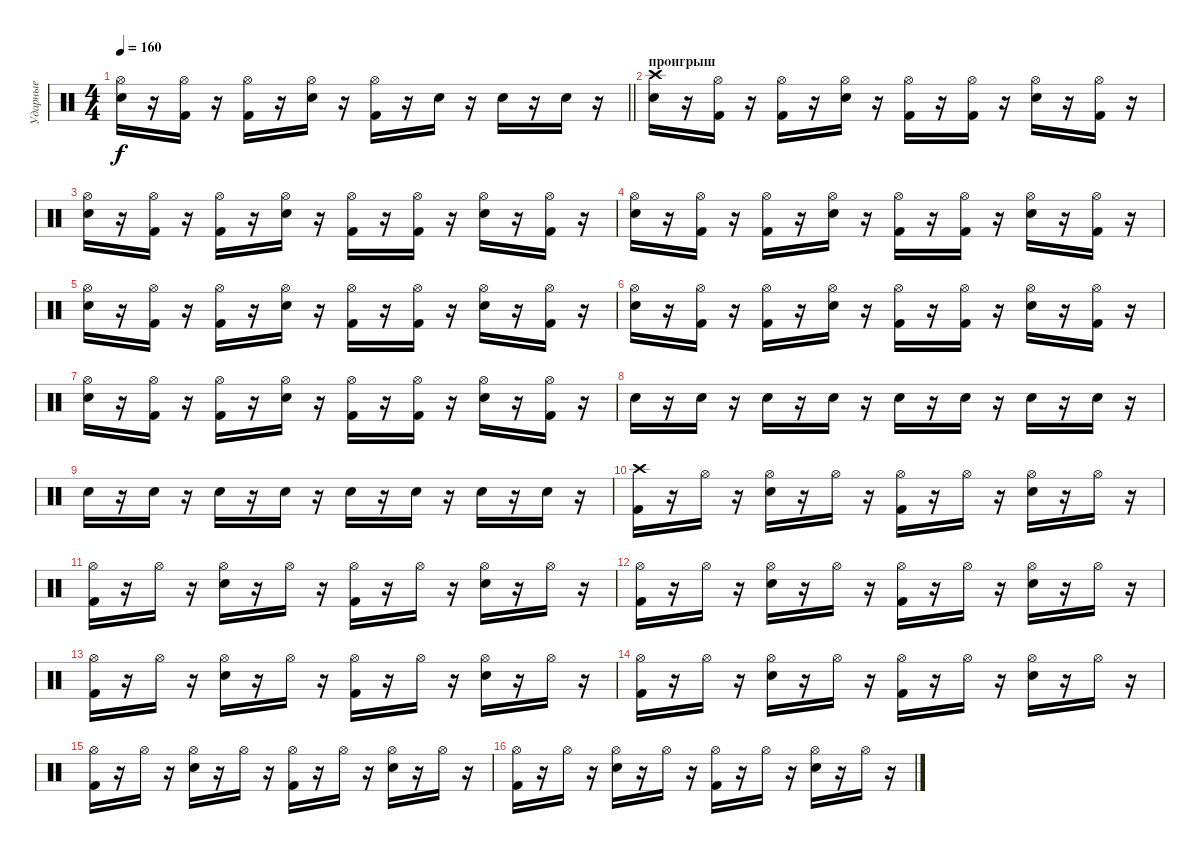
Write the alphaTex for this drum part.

\track ("Ударные" "Ударные") {instrument percussion}
\staff {score}
\articulation defaults
\ts (4 4)
\tempo 160
\clef neutral
\barLineRight lightlight
\ks c
("Hi-Hat (open)" "Electric Snare (hit)").16{dy f} r.16 ("Hi-Hat (open)" "Kick (hit) 2").16 r.16 ("Hi-Hat (open)" "Kick (hit) 2").16 r.16 ("Hi-Hat (open)" "Electric Snare (hit)").16 r.16 ("Hi-Hat (open)" "Kick (hit) 2").16 r.16 "Electric Snare (hit)".16 r.16 "Electric Snare (hit)".16 r.16 "Electric Snare (hit)".16 r.16 |
\section ("" "проигрыш")
("Crash high (hit)" "Electric Snare (hit)").16 r.16 ("Hi-Hat (open)" "Kick (hit) 2").16 r.16 ("Hi-Hat (open)" "Kick (hit) 2").16 r.16 ("Hi-Hat (open)" "Electric Snare (hit)").16 r.16 ("Hi-Hat (open)" "Kick (hit) 2").16 r.16 ("Hi-Hat (open)" "Kick (hit) 2").16 r.16 ("Hi-Hat (open)" "Electric Snare (hit)").16 r.16 ("Hi-Hat (open)" "Kick (hit) 2").16 r.16 |
("Hi-Hat (open)" "Electric Snare (hit)").16 r.16 ("Hi-Hat (open)" "Kick (hit) 2").16 r.16 ("Hi-Hat (open)" "Kick (hit) 2").16 r.16 ("Hi-Hat (open)" "Electric Snare (hit)").16 r.16 ("Hi-Hat (open)" "Kick (hit) 2").16 r.16 ("Hi-Hat (open)" "Kick (hit) 2").16 r.16 ("Hi-Hat (open)" "Electric Snare (hit)").16 r.16 ("Hi-Hat (open)" "Kick (hit) 2").16 r.16 |
("Hi-Hat (open)" "Electric Snare (hit)").16 r.16 ("Hi-Hat (open)" "Kick (hit) 2").16 r.16 ("Hi-Hat (open)" "Kick (hit) 2").16 r.16 ("Hi-Hat (open)" "Electric Snare (hit)").16 r.16 ("Hi-Hat (open)" "Kick (hit) 2").16 r.16 ("Hi-Hat (open)" "Kick (hit) 2").16 r.16 ("Hi-Hat (open)" "Electric Snare (hit)").16 r.16 ("Hi-Hat (open)" "Kick (hit) 2").16 r.16 |
("Hi-Hat (open)" "Electric Snare (hit)").16 r.16 ("Hi-Hat (open)" "Kick (hit) 2").16 r.16 ("Hi-Hat (open)" "Kick (hit) 2").16 r.16 ("Hi-Hat (open)" "Electric Snare (hit)").16 r.16 ("Hi-Hat (open)" "Kick (hit) 2").16 r.16 ("Hi-Hat (open)" "Kick (hit) 2").16 r.16 ("Hi-Hat (open)" "Electric Snare (hit)").16 r.16 ("Hi-Hat (open)" "Kick (hit) 2").16 r.16 |
("Hi-Hat (open)" "Electric Snare (hit)").16 r.16 ("Hi-Hat (open)" "Kick (hit) 2").16 r.16 ("Hi-Hat (open)" "Kick (hit) 2").16 r.16 ("Hi-Hat (open)" "Electric Snare (hit)").16 r.16 ("Hi-Hat (open)" "Kick (hit) 2").16 r.16 ("Hi-Hat (open)" "Kick (hit) 2").16 r.16 ("Hi-Hat (open)" "Electric Snare (hit)").16 r.16 ("Hi-Hat (open)" "Kick (hit) 2").16 r.16 |
("Hi-Hat (open)" "Electric Snare (hit)").16 r.16 ("Hi-Hat (open)" "Kick (hit) 2").16 r.16 ("Hi-Hat (open)" "Kick (hit) 2").16 r.16 ("Hi-Hat (open)" "Electric Snare (hit)").16 r.16 ("Hi-Hat (open)" "Kick (hit) 2").16 r.16 ("Hi-Hat (open)" "Kick (hit) 2").16 r.16 ("Hi-Hat (open)" "Electric Snare (hit)").16 r.16 ("Hi-Hat (open)" "Kick (hit) 2").16 r.16 |
"Electric Snare (hit)".16 r.16 "Electric Snare (hit)".16 r.16 "Electric Snare (hit)".16 r.16 "Electric Snare (hit)".16 r.16 "Electric Snare (hit)".16 r.16 "Electric Snare (hit)".16 r.16 "Electric Snare (hit)".16 r.16 "Electric Snare (hit)".16 r.16 |
"Electric Snare (hit)".16 r.16 "Electric Snare (hit)".16 r.16 "Electric Snare (hit)".16 r.16 "Electric Snare (hit)".16 r.16 "Electric Snare (hit)".16 r.16 "Electric Snare (hit)".16 r.16 "Electric Snare (hit)".16 r.16 "Electric Snare (hit)".16 r.16 |
("Crash high (hit)" "Kick (hit) 2").16 r.16 "Hi-Hat (open)".16 r.16 ("Hi-Hat (open)" "Electric Snare (hit)").16 r.16 "Hi-Hat (open)".16 r.16 ("Hi-Hat (open)" "Kick (hit) 2").16 r.16 "Hi-Hat (open)".16 r.16 ("Hi-Hat (open)" "Electric Snare (hit)").16 r.16 "Hi-Hat (open)".16 r.16 |
("Hi-Hat (open)" "Kick (hit) 2").16 r.16 "Hi-Hat (open)".16 r.16 ("Hi-Hat (open)" "Electric Snare (hit)").16 r.16 "Hi-Hat (open)".16 r.16 ("Hi-Hat (open)" "Kick (hit) 2").16 r.16 "Hi-Hat (open)".16 r.16 ("Hi-Hat (open)" "Electric Snare (hit)").16 r.16 "Hi-Hat (open)".16 r.16 |
("Hi-Hat (open)" "Kick (hit) 2").16 r.16 "Hi-Hat (open)".16 r.16 ("Hi-Hat (open)" "Electric Snare (hit)").16 r.16 "Hi-Hat (open)".16 r.16 ("Hi-Hat (open)" "Kick (hit) 2").16 r.16 "Hi-Hat (open)".16 r.16 ("Hi-Hat (open)" "Electric Snare (hit)").16 r.16 "Hi-Hat (open)".16 r.16 |
("Hi-Hat (open)" "Kick (hit) 2").16 r.16 "Hi-Hat (open)".16 r.16 ("Hi-Hat (open)" "Electric Snare (hit)").16 r.16 "Hi-Hat (open)".16 r.16 ("Hi-Hat (open)" "Kick (hit) 2").16 r.16 "Hi-Hat (open)".16 r.16 ("Hi-Hat (open)" "Electric Snare (hit)").16 r.16 "Hi-Hat (open)".16 r.16 |
("Hi-Hat (open)" "Kick (hit) 2").16 r.16 "Hi-Hat (open)".16 r.16 ("Hi-Hat (open)" "Electric Snare (hit)").16 r.16 "Hi-Hat (open)".16 r.16 ("Hi-Hat (open)" "Kick (hit) 2").16 r.16 "Hi-Hat (open)".16 r.16 ("Hi-Hat (open)" "Electric Snare (hit)").16 r.16 "Hi-Hat (open)".16 r.16 |
("Hi-Hat (open)" "Kick (hit) 2").16 r.16 "Hi-Hat (open)".16 r.16 ("Hi-Hat (open)" "Electric Snare (hit)").16 r.16 "Hi-Hat (open)".16 r.16 ("Hi-Hat (open)" "Kick (hit) 2").16 r.16 "Hi-Hat (open)".16 r.16 ("Hi-Hat (open)" "Electric Snare (hit)").16 r.16 "Hi-Hat (open)".16 r.16 |
("Hi-Hat (open)" "Kick (hit) 2").16 r.16 "Hi-Hat (open)".16 r.16 ("Hi-Hat (open)" "Electric Snare (hit)").16 r.16 "Hi-Hat (open)".16 r.16 ("Hi-Hat (open)" "Kick (hit) 2").16 r.16 "Hi-Hat (open)".16 r.16 ("Hi-Hat (open)" "Electric Snare (hit)").16 r.16 "Hi-Hat (open)".16 r.16
